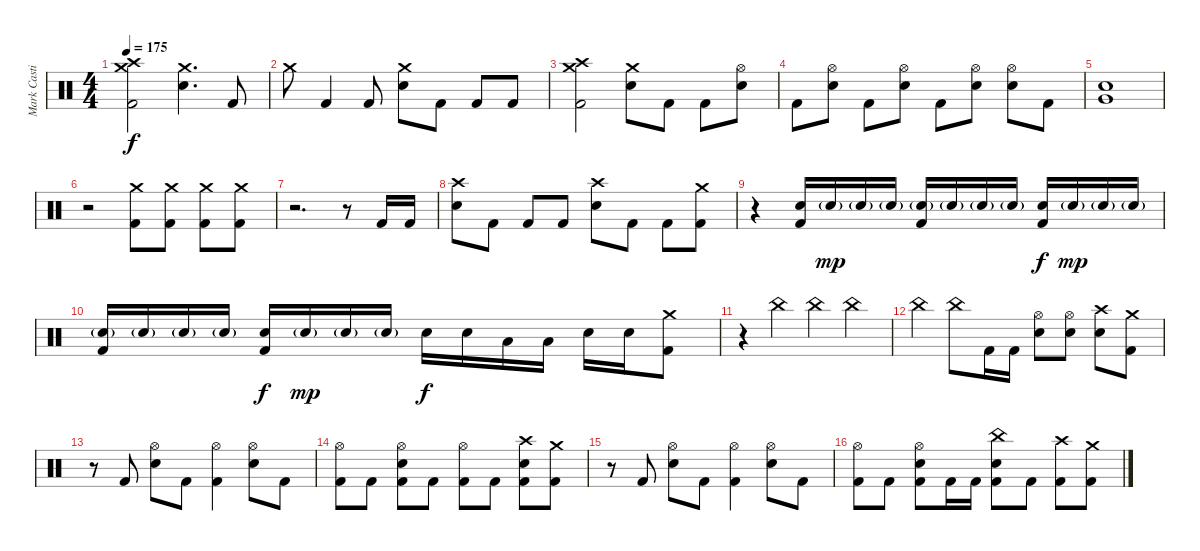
\track ("Mark Castillo" "Mark Casti") {instrument percussion}
\staff {score}
\articulation defaults
\ts (4 4)
\tempo 175
\clef neutral
\ks c
("Crash high (hit)" "Crash medium (hit)" "Kick (hit) 2").2{dy f} ("Crash medium (hit)" "Electric Snare (hit)").4{d} "Kick (hit) 2".8 |
"Crash medium (hit)".8 "Kick (hit) 2".4 "Kick (hit) 2".8 ("Crash medium (hit)" "Electric Snare (hit)").8 "Kick (hit) 2".8 "Kick (hit) 2".8 "Kick (hit) 2".8 |
("Crash high (hit)" "Crash medium (hit)" "Kick (hit) 2").2 ("Crash medium (hit)" "Electric Snare (hit)").8 "Kick (hit) 2".8 "Kick (hit) 2".8 ("Hi-Hat (open)" "Electric Snare (hit)").8 |
"Kick (hit) 2".8 ("Hi-Hat (open)" "Electric Snare (hit)").8 "Kick (hit) 2".8 ("Hi-Hat (open)" "Electric Snare (hit)").8 "Kick (hit) 2".8 ("Hi-Hat (open)" "Electric Snare (hit)").8 ("Hi-Hat (open)" "Electric Snare (hit)").8 "Kick (hit) 2".8 |
("Very Low Tom (hit)" "Electric Snare (hit)").1 |
r.2 ("Crash medium (hit)" "Kick (hit) 2").8 ("Crash medium (hit)" "Kick (hit) 2").8 ("Crash medium (hit)" "Kick (hit) 2").8 ("Crash medium (hit)" "Kick (hit) 2").8 |
r.2{d} r.8 "Kick (hit) 2".16 "Kick (hit) 2".16 |
("Crash high (hit)" "Electric Snare (hit)").8 "Kick (hit) 2".8 "Kick (hit) 2".8 "Kick (hit) 2".8 ("Crash high (hit)" "Electric Snare (hit)").8 "Kick (hit) 2".8 "Kick (hit) 2".8 ("Crash medium (hit)" "Kick (hit) 2").8 |
r.4 ("Electric Snare (hit)" "Kick (hit) 2").16 "Electric Snare (hit)"{g}.16{dy mp} "Electric Snare (hit)"{g}.16 "Electric Snare (hit)"{g}.16 ("Electric Snare (hit)"{g} "Kick (hit) 2").16 "Electric Snare (hit)"{g}.16 "Electric Snare (hit)"{g}.16 "Electric Snare (hit)"{g}.16 ("Electric Snare (hit)" "Kick (hit) 2").16{dy f} "Electric Snare (hit)"{g}.16{dy mp} "Electric Snare (hit)"{g}.16 "Electric Snare (hit)"{g}.16 |
("Electric Snare (hit)"{g} "Kick (hit) 2").16 "Electric Snare (hit)"{g}.16 "Electric Snare (hit)"{g}.16 "Electric Snare (hit)"{g}.16 ("Electric Snare (hit)" "Kick (hit) 2").16{dy f} "Electric Snare (hit)"{g}.16{dy mp} "Electric Snare (hit)"{g}.16 "Electric Snare (hit)"{g}.16 "Electric Snare (hit)".16{dy f} "Electric Snare (hit)".16 "Low Tom (hit)".16 "Low Tom (hit)".16 "Electric Snare (hit)".16 "Electric Snare (hit)".16 ("Crash medium (hit)" "Kick (hit) 2").8 |
r.4 "China (hit)".4 "China (hit)".4 "China (hit)".4 |
"China (hit)".4 "China (hit)".8 "Kick (hit) 2".16 "Kick (hit) 2".16 ("Hi-Hat (open)" "Electric Snare (hit)").8 ("Hi-Hat (open)" "Electric Snare (hit)").8 ("Crash high (hit)" "Electric Snare (hit)").8 ("Crash medium (hit)" "Kick (hit) 2").8 |
r.8 "Kick (hit) 2".8 ("Hi-Hat (open)" "Electric Snare (hit)").8 "Kick (hit) 2".8 ("Hi-Hat (open)" "Kick (hit) 2").4 ("Hi-Hat (open)" "Electric Snare (hit)").8 "Kick (hit) 2".8 |
("Hi-Hat (open)" "Kick (hit) 2").8 "Kick (hit) 2".8 ("Hi-Hat (open)" "Electric Snare (hit)" "Kick (hit) 2").8 "Kick (hit) 2".8 ("Hi-Hat (open)" "Kick (hit) 2").8 "Kick (hit) 2".8 ("Crash high (hit)" "Electric Snare (hit)" "Kick (hit) 2").8 ("Crash medium (hit)" "Kick (hit) 2").8 |
r.8 "Kick (hit) 2".8 ("Hi-Hat (open)" "Electric Snare (hit)").8 "Kick (hit) 2".8 ("Hi-Hat (open)" "Kick (hit) 2").4 ("Hi-Hat (open)" "Electric Snare (hit)").8 "Kick (hit) 2".8 |
("Hi-Hat (open)" "Kick (hit) 2").8 "Kick (hit) 2".8 ("Hi-Hat (open)" "Electric Snare (hit)" "Kick (hit) 2").8 "Kick (hit) 2".16 "Kick (hit) 2".16 ("China (hit)" "Electric Snare (hit)" "Kick (hit) 2").8 "Kick (hit) 2".8 ("Crash high (hit)" "Kick (hit) 2").8 ("Crash medium (hit)" "Kick (hit) 2").8
